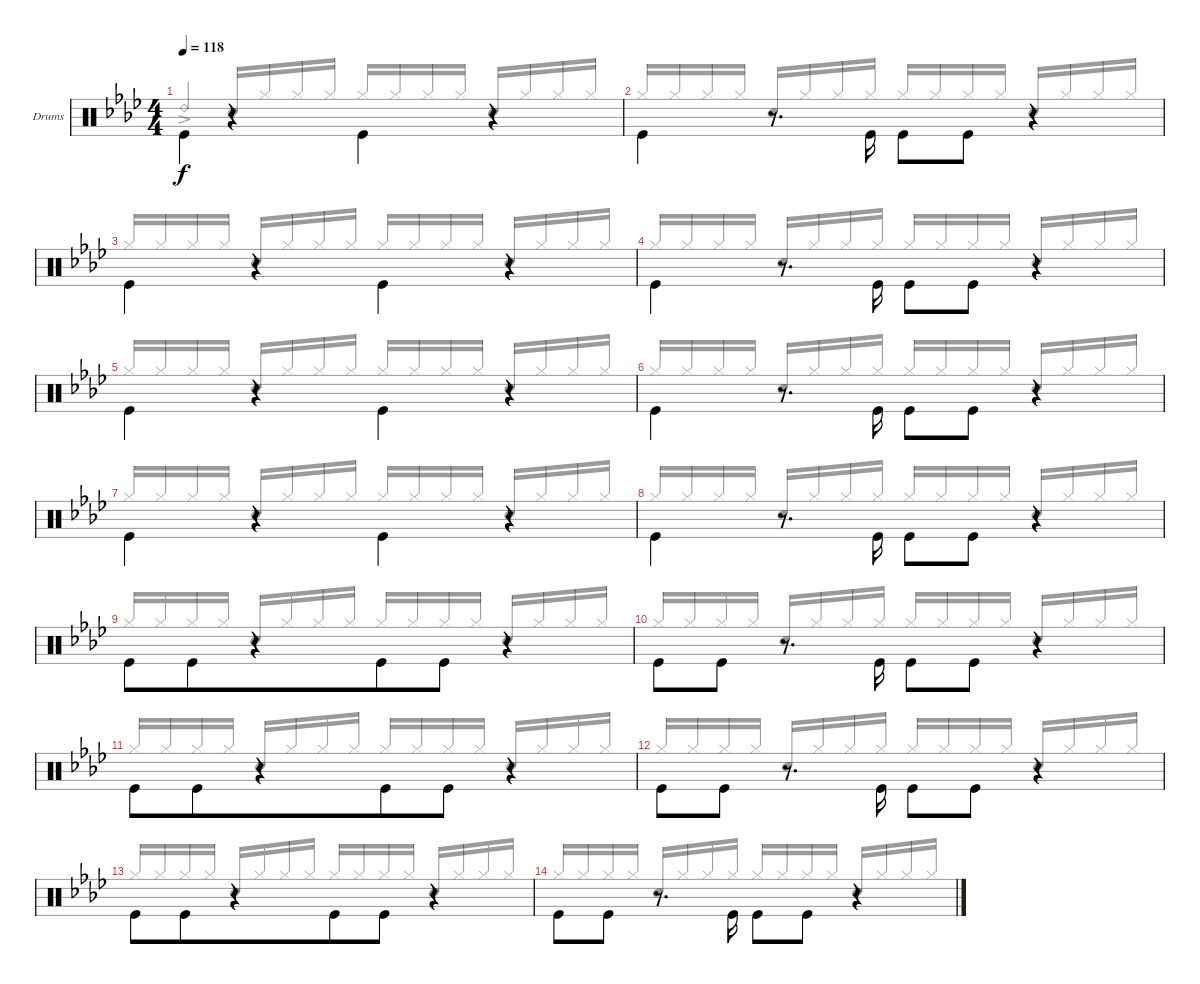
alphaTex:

\bracketExtendMode groupsimilarinstruments
\firstSystemTrackNameOrientation horizontal
\otherSystemsTrackNameOrientation horizontal
\track ("Drums" "Drums") {instrument percussion}
\staff {score}
\articulation defaults
\voice
\ts (4 4)
\tempo 118
\clef neutral
\scale
0.5
\ks ab "Kick (hit)".4{dy f beam invert}
r.4{beam invert} "Kick (hit)".4{beam invert} r.4{beam invert} |
\scale
0.5 "Kick (hit)".4{beam invert beam split} r.8{d beam split} "Kick (hit)".16{beam invert} "Kick (hit)".8{beam invert beam merge} "Kick (hit)".8{beam merge} r.4 |
\scale
0.5 "Kick (hit)".4{beam invert} r.4{beam invert} "Kick (hit)".4{beam invert} r.4{beam invert} |
\scale
0.5 "Kick (hit)".4{beam invert beam split} r.8{d beam split} "Kick (hit)".16{beam invert} "Kick (hit)".8{beam invert beam merge} "Kick (hit)".8{beam merge} r.4 |
\scale
0.5 "Kick (hit)".4{beam invert} r.4{beam invert} "Kick (hit)".4{beam invert} r.4{beam invert} |
\scale
0.5 "Kick (hit)".4{beam invert beam split} r.8{d beam split} "Kick (hit)".16{beam invert} "Kick (hit)".8{beam invert beam merge} "Kick (hit)".8{beam merge} r.4 |
\scale
1.09458 "Kick (hit)".4{beam invert} r.4{beam invert} "Kick (hit)".4{beam invert} r.4{beam invert} |
\scale
0.905422 "Kick (hit)".4{beam invert beam split} r.8{d beam split} "Kick (hit)".16{beam invert} "Kick (hit)".8{beam invert beam merge} "Kick (hit)".8{beam merge} r.4 |
\scale
1.06431 "Kick (hit)".8{beam invert beam merge} "Kick (hit)".8{beam merge} r.4{beam merge} "Kick (hit)".8{beam invert beam merge} "Kick (hit)".8{beam merge} r.4{beam merge} |
\scale
0.935687 "Kick (hit)".8{beam invert beam merge} "Kick (hit)".8{beam split} r.8{d beam split} "Kick (hit)".16{beam invert} "Kick (hit)".8{beam invert beam merge} "Kick (hit)".8{beam merge} r.4 |
\scale
1.06431 "Kick (hit)".8{beam invert beam merge} "Kick (hit)".8{beam merge} r.4{beam merge} "Kick (hit)".8{beam invert beam merge} "Kick (hit)".8{beam merge} r.4{beam merge} |
\scale
0.935687 "Kick (hit)".8{beam invert beam merge} "Kick (hit)".8{beam split} r.8{d beam split} "Kick (hit)".16{beam invert} "Kick (hit)".8{beam invert beam merge} "Kick (hit)".8{beam merge} r.4 |
\scale
1.06431 "Kick (hit)".8{beam invert beam merge} "Kick (hit)".8{beam merge} r.4{beam merge} "Kick (hit)".8{beam invert beam merge} "Kick (hit)".8{beam merge} r.4{beam merge} |
\scale
0.935687 "Kick (hit)".8{beam invert beam merge} "Kick (hit)".8{beam split} r.8{d beam split} "Kick (hit)".16{beam invert} "Kick (hit)".8{beam invert beam merge} "Kick (hit)".8{beam merge} r.4
\voice
\clef neutral
\ottava regular
\simile none
\scale
0.5
\ks ab "Ride (bell) 2"{ac}.4{dy f beam invert} "Snare (hit) 2".16{beam invert beam merge} "Hi-Hat (closed)".16{beam merge} "Hi-Hat (closed)".16{beam merge} "Hi-Hat (closed)".16{beam split} "Hi-Hat (closed)".16{beam invert beam merge} "Hi-Hat (closed)".16{beam merge} "Hi-Hat (closed)".16{beam merge} "Hi-Hat (closed)".16{beam split} "Snare (hit) 2".16{beam invert beam merge} "Hi-Hat (closed)".16{beam merge} "Hi-Hat (closed)".16{beam merge} "Hi-Hat (closed)".16{beam split}
|
\scale
0.5 "Hi-Hat (closed)".16{beam invert beam merge} "Hi-Hat (closed)".16{beam merge} "Hi-Hat (closed)".16{beam merge} "Hi-Hat (closed)".16{beam split} "Snare (hit) 2".16{beam invert beam merge} "Hi-Hat (closed)".16{beam merge} "Hi-Hat (closed)".16{beam merge} "Hi-Hat (closed)".16{beam split} "Hi-Hat (closed)".16{beam invert beam merge} "Hi-Hat (closed)".16{beam merge} "Hi-Hat (closed)".16{beam merge} "Hi-Hat (closed)".16{beam split} "Snare (hit) 2".16{beam invert beam merge} "Hi-Hat (closed)".16{beam merge} "Hi-Hat (closed)".16{beam merge} "Hi-Hat (closed)".16{beam split} |
\scale
0.5 "Hi-Hat (closed)".16{beam invert beam merge} "Hi-Hat (closed)".16{beam merge} "Hi-Hat (closed)".16{beam merge} "Hi-Hat (closed)".16{beam split} "Snare (hit) 2".16{beam invert beam merge} "Hi-Hat (closed)".16{beam merge} "Hi-Hat (closed)".16{beam merge} "Hi-Hat (closed)".16{beam split} "Hi-Hat (closed)".16{beam invert beam merge} "Hi-Hat (closed)".16{beam merge} "Hi-Hat (closed)".16{beam merge} "Hi-Hat (closed)".16{beam split} "Snare (hit) 2".16{beam invert beam merge} "Hi-Hat (closed)".16{beam merge} "Hi-Hat (closed)".16{beam merge} "Hi-Hat (closed)".16{beam split} |
\scale
0.5 "Hi-Hat (closed)".16{beam invert beam merge} "Hi-Hat (closed)".16{beam merge} "Hi-Hat (closed)".16{beam merge} "Hi-Hat (closed)".16{beam split} "Snare (hit) 2".16{beam invert beam merge} "Hi-Hat (closed)".16{beam merge} "Hi-Hat (closed)".16{beam merge} "Hi-Hat (closed)".16{beam split} "Hi-Hat (closed)".16{beam invert beam merge} "Hi-Hat (closed)".16{beam merge} "Hi-Hat (closed)".16{beam merge} "Hi-Hat (closed)".16{beam split} "Snare (hit) 2".16{beam invert beam merge} "Hi-Hat (closed)".16{beam merge} "Hi-Hat (closed)".16{beam merge} "Hi-Hat (closed)".16{beam split} |
\scale
0.5 "Hi-Hat (closed)".16{beam invert beam merge} "Hi-Hat (closed)".16{beam merge} "Hi-Hat (closed)".16{beam merge} "Hi-Hat (closed)".16{beam split} "Snare (hit) 2".16{beam invert beam merge} "Hi-Hat (closed)".16{beam merge} "Hi-Hat (closed)".16{beam merge} "Hi-Hat (closed)".16{beam split} "Hi-Hat (closed)".16{beam invert beam merge} "Hi-Hat (closed)".16{beam merge} "Hi-Hat (closed)".16{beam merge} "Hi-Hat (closed)".16{beam split} "Snare (hit) 2".16{beam invert beam merge} "Hi-Hat (closed)".16{beam merge} "Hi-Hat (closed)".16{beam merge} "Hi-Hat (closed)".16{beam split} |
\scale
0.5 "Hi-Hat (closed)".16{beam invert beam merge} "Hi-Hat (closed)".16{beam merge} "Hi-Hat (closed)".16{beam merge} "Hi-Hat (closed)".16{beam split} "Snare (hit) 2".16{beam invert beam merge} "Hi-Hat (closed)".16{beam merge} "Hi-Hat (closed)".16{beam merge} "Hi-Hat (closed)".16{beam split} "Hi-Hat (closed)".16{beam invert beam merge} "Hi-Hat (closed)".16{beam merge} "Hi-Hat (closed)".16{beam merge} "Hi-Hat (closed)".16{beam split} "Snare (hit) 2".16{beam invert beam merge} "Hi-Hat (closed)".16{beam merge} "Hi-Hat (closed)".16{beam merge} "Hi-Hat (closed)".16{beam split} |
\scale
1.09458 "Hi-Hat (closed)".16{beam invert beam merge} "Hi-Hat (closed)".16{beam merge} "Hi-Hat (closed)".16{beam merge} "Hi-Hat (closed)".16{beam split} "Snare (hit) 2".16{beam invert beam merge} "Hi-Hat (closed)".16{beam merge} "Hi-Hat (closed)".16{beam merge} "Hi-Hat (closed)".16{beam split} "Hi-Hat (closed)".16{beam invert beam merge} "Hi-Hat (closed)".16{beam merge} "Hi-Hat (closed)".16{beam merge} "Hi-Hat (closed)".16{beam split} "Snare (hit) 2".16{beam invert beam merge} "Hi-Hat (closed)".16{beam merge} "Hi-Hat (closed)".16{beam merge} "Hi-Hat (closed)".16{beam split} |
\scale
0.905422 "Hi-Hat (closed)".16{beam invert beam merge} "Hi-Hat (closed)".16{beam merge} "Hi-Hat (closed)".16{beam merge} "Hi-Hat (closed)".16{beam split} "Snare (hit) 2".16{beam invert beam merge} "Hi-Hat (closed)".16{beam merge} "Hi-Hat (closed)".16{beam merge} "Hi-Hat (closed)".16{beam split} "Hi-Hat (closed)".16{beam invert beam merge} "Hi-Hat (closed)".16{beam merge} "Hi-Hat (closed)".16{beam merge} "Hi-Hat (closed)".16{beam split} "Snare (hit) 2".16{beam invert beam merge} "Hi-Hat (closed)".16{beam merge} "Hi-Hat (closed)".16{beam merge} "Hi-Hat (closed)".16{beam split} |
\scale
1.06431 "Hi-Hat (closed)".16{beam invert beam merge} "Hi-Hat (closed)".16{beam merge} "Hi-Hat (closed)".16{beam merge} "Hi-Hat (closed)".16{beam split} "Snare (hit) 2".16{beam invert beam merge} "Hi-Hat (closed)".16{beam merge} "Hi-Hat (closed)".16{beam merge} "Hi-Hat (closed)".16{beam split} "Hi-Hat (closed)".16{beam invert beam merge} "Hi-Hat (closed)".16{beam merge} "Hi-Hat (closed)".16{beam merge} "Hi-Hat (closed)".16{beam split} "Snare (hit) 2".16{beam invert beam merge} "Hi-Hat (closed)".16{beam merge} "Hi-Hat (closed)".16{beam merge} "Hi-Hat (closed)".16{beam split} |
\scale
0.935687 "Hi-Hat (closed)".16{beam invert beam merge} "Hi-Hat (closed)".16{beam merge} "Hi-Hat (closed)".16{beam merge} "Hi-Hat (closed)".16{beam split} "Snare (hit) 2".16{beam invert beam merge} "Hi-Hat (closed)".16{beam merge} "Hi-Hat (closed)".16{beam merge} "Hi-Hat (closed)".16{beam split} "Hi-Hat (closed)".16{beam invert beam merge} "Hi-Hat (closed)".16{beam merge} "Hi-Hat (closed)".16{beam merge} "Hi-Hat (closed)".16{beam split} "Snare (hit) 2".16{beam invert beam merge} "Hi-Hat (closed)".16{beam merge} "Hi-Hat (closed)".16{beam merge} "Hi-Hat (closed)".16{beam split} |
\scale
1.06431 "Hi-Hat (closed)".16{beam invert beam merge} "Hi-Hat (closed)".16{beam merge} "Hi-Hat (closed)".16{beam merge} "Hi-Hat (closed)".16{beam split} "Snare (hit) 2".16{beam invert beam merge} "Hi-Hat (closed)".16{beam merge} "Hi-Hat (closed)".16{beam merge} "Hi-Hat (closed)".16{beam split} "Hi-Hat (closed)".16{beam invert beam merge} "Hi-Hat (closed)".16{beam merge} "Hi-Hat (closed)".16{beam merge} "Hi-Hat (closed)".16{beam split} "Snare (hit) 2".16{beam invert beam merge} "Hi-Hat (closed)".16{beam merge} "Hi-Hat (closed)".16{beam merge} "Hi-Hat (closed)".16{beam split} |
\scale
0.935687 "Hi-Hat (closed)".16{beam invert beam merge} "Hi-Hat (closed)".16{beam merge} "Hi-Hat (closed)".16{beam merge} "Hi-Hat (closed)".16{beam split} "Snare (hit) 2".16{beam invert beam merge} "Hi-Hat (closed)".16{beam merge} "Hi-Hat (closed)".16{beam merge} "Hi-Hat (closed)".16{beam split} "Hi-Hat (closed)".16{beam invert beam merge} "Hi-Hat (closed)".16{beam merge} "Hi-Hat (closed)".16{beam merge} "Hi-Hat (closed)".16{beam split} "Snare (hit) 2".16{beam invert beam merge} "Hi-Hat (closed)".16{beam merge} "Hi-Hat (closed)".16{beam merge} "Hi-Hat (closed)".16{beam split} |
\scale
1.06431 "Hi-Hat (closed)".16{beam invert beam merge} "Hi-Hat (closed)".16{beam merge} "Hi-Hat (closed)".16{beam merge} "Hi-Hat (closed)".16{beam split} "Snare (hit) 2".16{beam invert beam merge} "Hi-Hat (closed)".16{beam merge} "Hi-Hat (closed)".16{beam merge} "Hi-Hat (closed)".16{beam split} "Hi-Hat (closed)".16{beam invert beam merge} "Hi-Hat (closed)".16{beam merge} "Hi-Hat (closed)".16{beam merge} "Hi-Hat (closed)".16{beam split} "Snare (hit) 2".16{beam invert beam merge} "Hi-Hat (closed)".16{beam merge} "Hi-Hat (closed)".16{beam merge} "Hi-Hat (closed)".16{beam split} |
\scale
0.935687 "Hi-Hat (closed)".16{beam invert beam merge} "Hi-Hat (closed)".16{beam merge} "Hi-Hat (closed)".16{beam merge} "Hi-Hat (closed)".16{beam split} "Snare (hit) 2".16{beam invert beam merge} "Hi-Hat (closed)".16{beam merge} "Hi-Hat (closed)".16{beam merge} "Hi-Hat (closed)".16{beam split} "Hi-Hat (closed)".16{beam invert beam merge} "Hi-Hat (closed)".16{beam merge} "Hi-Hat (closed)".16{beam merge} "Hi-Hat (closed)".16{beam split} "Snare (hit) 2".16{beam invert beam merge} "Hi-Hat (closed)".16{beam merge} "Hi-Hat (closed)".16{beam merge} "Hi-Hat (closed)".16{beam split}
